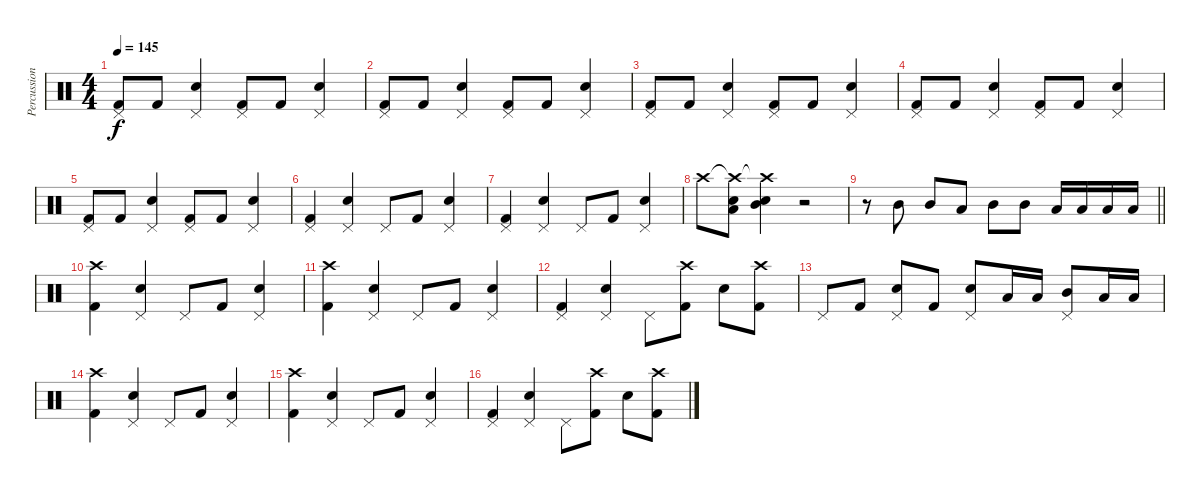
\track ("Percussion" "Percussion") {instrument percussion}
\staff {score}
\articulation defaults
\ts (4 4)
\tempo 145
\clef neutral
\ks c
("Pedal Hi-Hat (hit)" "Kick (hit) 2").8{dy f} "Kick (hit) 2".8 ("Pedal Hi-Hat (hit)" "Snare (hit) 2").4 ("Pedal Hi-Hat (hit)" "Kick (hit) 2").8 "Kick (hit) 2".8 ("Pedal Hi-Hat (hit)" "Snare (hit) 2").4 |
("Pedal Hi-Hat (hit)" "Kick (hit) 2").8 "Kick (hit) 2".8 ("Pedal Hi-Hat (hit)" "Snare (hit) 2").4 ("Pedal Hi-Hat (hit)" "Kick (hit) 2").8 "Kick (hit) 2".8 ("Pedal Hi-Hat (hit)" "Snare (hit) 2").4 |
("Pedal Hi-Hat (hit)" "Kick (hit) 2").8 "Kick (hit) 2".8 ("Pedal Hi-Hat (hit)" "Snare (hit) 2").4 ("Pedal Hi-Hat (hit)" "Kick (hit) 2").8 "Kick (hit) 2".8 ("Pedal Hi-Hat (hit)" "Snare (hit) 2").4 |
("Pedal Hi-Hat (hit)" "Kick (hit) 2").8 "Kick (hit) 2".8 ("Pedal Hi-Hat (hit)" "Snare (hit) 2").4 ("Pedal Hi-Hat (hit)" "Kick (hit) 2").8 "Kick (hit) 2".8 ("Pedal Hi-Hat (hit)" "Snare (hit) 2").4 |
("Pedal Hi-Hat (hit)" "Kick (hit) 2").8 "Kick (hit) 2".8 ("Pedal Hi-Hat (hit)" "Snare (hit) 2").4 ("Pedal Hi-Hat (hit)" "Kick (hit) 2").8 "Kick (hit) 2".8 ("Pedal Hi-Hat (hit)" "Snare (hit) 2").4 |
("Pedal Hi-Hat (hit)" "Kick (hit) 2").4 ("Pedal Hi-Hat (hit)" "Snare (hit) 2").4 "Pedal Hi-Hat (hit)".8 "Kick (hit) 2".8 ("Pedal Hi-Hat (hit)" "Snare (hit) 2").4 |
("Pedal Hi-Hat (hit)" "Kick (hit) 2").4 ("Pedal Hi-Hat (hit)" "Snare (hit) 2").4 "Pedal Hi-Hat (hit)".8 "Kick (hit) 2".8 ("Pedal Hi-Hat (hit)" "Snare (hit) 2").4 |
"Crash high (hit)".8 ("Crash high (hit)"{t} "Low Tom (hit)" "Snare (hit) 2").8 ("Crash high (hit)"{t} "Mid Tom (hit)" "Snare (hit) 2").4 r.2 |
\barLineRight lightlight
r.8 "Mid Tom (hit)".8 "Mid Tom (hit)".8 "Low Tom (hit)".8 "Mid Tom (hit)".8 "Mid Tom (hit)".8 "Low Tom (hit)".16 "Low Tom (hit)".16 "Low Tom (hit)".16 "Low Tom (hit)".16 |
\section ("" "")
("Crash high (hit)" "Kick (hit) 2").4 ("Pedal Hi-Hat (hit)" "Snare (hit) 2").4 "Pedal Hi-Hat (hit)".8 "Kick (hit) 2".8 ("Pedal Hi-Hat (hit)" "Snare (hit) 2").4 |
("Crash high (hit)" "Kick (hit) 2").4 ("Pedal Hi-Hat (hit)" "Snare (hit) 2").4 "Pedal Hi-Hat (hit)".8 "Kick (hit) 2".8 ("Pedal Hi-Hat (hit)" "Snare (hit) 2").4 |
("Pedal Hi-Hat (hit)" "Kick (hit) 2").4 ("Pedal Hi-Hat (hit)" "Snare (hit) 2").4 "Pedal Hi-Hat (hit)".8 ("Crash high (hit)" "Kick (hit) 2").8 "Snare (hit) 2".8 ("Crash high (hit)" "Kick (hit) 2").8 |
"Pedal Hi-Hat (hit)".8 "Kick (hit) 2".8 ("Pedal Hi-Hat (hit)" "Snare (hit) 2").8 "Kick (hit) 2".8 ("Pedal Hi-Hat (hit)" "Snare (hit) 2").8 "Low Tom (hit)".16 "Low Tom (hit)".16 ("Pedal Hi-Hat (hit)" "Mid Tom (hit)").8 "Low Tom (hit)".16 "Low Tom (hit)".16 |
("Crash high (hit)" "Kick (hit) 2").4 ("Pedal Hi-Hat (hit)" "Snare (hit) 2").4 "Pedal Hi-Hat (hit)".8 "Kick (hit) 2".8 ("Pedal Hi-Hat (hit)" "Snare (hit) 2").4 |
("Crash high (hit)" "Kick (hit) 2").4 ("Pedal Hi-Hat (hit)" "Snare (hit) 2").4 "Pedal Hi-Hat (hit)".8 "Kick (hit) 2".8 ("Pedal Hi-Hat (hit)" "Snare (hit) 2").4 |
("Pedal Hi-Hat (hit)" "Kick (hit) 2").4 ("Pedal Hi-Hat (hit)" "Snare (hit) 2").4 "Pedal Hi-Hat (hit)".8 ("Crash high (hit)" "Kick (hit) 2").8 "Snare (hit) 2".8 ("Crash high (hit)" "Kick (hit) 2").8
